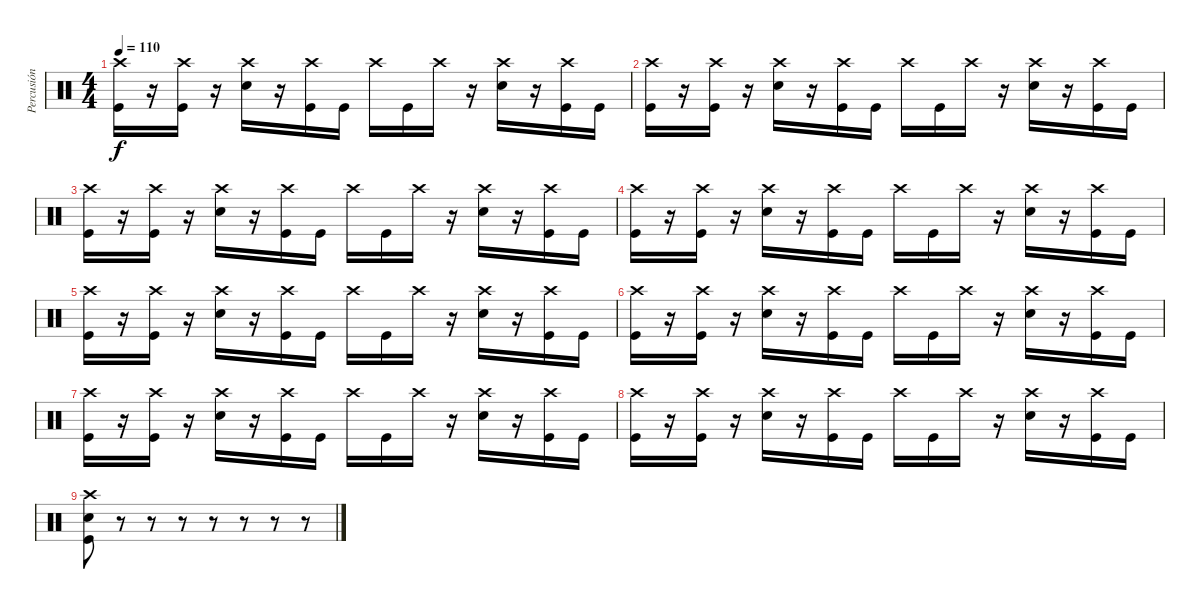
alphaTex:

\track ("Percusión" "Percusión") {instrument percussion}
\staff {score}
\articulation defaults
\ts (4 4)
\tempo 110
\clef neutral
\ks c
("Crash high (hit)" "Kick (hit)").16{dy f} r.16 ("Crash high (hit)" "Kick (hit)").16 r.16 ("Crash high (hit)" "Electric Snare (hit)").16 r.16 ("Crash high (hit)" "Kick (hit)").16 "Kick (hit)".16 "Crash high (hit)".16 "Kick (hit)".16 "Crash high (hit)".16 r.16 ("Crash high (hit)" "Electric Snare (hit)").16 r.16 ("Crash high (hit)" "Kick (hit)").16 "Kick (hit)".16 |
("Crash high (hit)" "Kick (hit)").16 r.16 ("Crash high (hit)" "Kick (hit)").16 r.16 ("Crash high (hit)" "Electric Snare (hit)").16 r.16 ("Crash high (hit)" "Kick (hit)").16 "Kick (hit)".16 "Crash high (hit)".16 "Kick (hit)".16 "Crash high (hit)".16 r.16 ("Crash high (hit)" "Electric Snare (hit)").16 r.16 ("Crash high (hit)" "Kick (hit)").16 "Kick (hit)".16 |
("Crash high (hit)" "Kick (hit)").16 r.16 ("Crash high (hit)" "Kick (hit)").16 r.16 ("Crash high (hit)" "Electric Snare (hit)").16 r.16 ("Crash high (hit)" "Kick (hit)").16 "Kick (hit)".16 "Crash high (hit)".16 "Kick (hit)".16 "Crash high (hit)".16 r.16 ("Crash high (hit)" "Electric Snare (hit)").16 r.16 ("Crash high (hit)" "Kick (hit)").16 "Kick (hit)".16 |
("Crash high (hit)" "Kick (hit)").16 r.16 ("Crash high (hit)" "Kick (hit)").16 r.16 ("Crash high (hit)" "Electric Snare (hit)").16 r.16 ("Crash high (hit)" "Kick (hit)").16 "Kick (hit)".16 "Crash high (hit)".16 "Kick (hit)".16 "Crash high (hit)".16 r.16 ("Crash high (hit)" "Electric Snare (hit)").16 r.16 ("Crash high (hit)" "Kick (hit)").16 "Kick (hit)".16 |
("Crash high (hit)" "Kick (hit)").16 r.16 ("Crash high (hit)" "Kick (hit)").16 r.16 ("Crash high (hit)" "Electric Snare (hit)").16 r.16 ("Crash high (hit)" "Kick (hit)").16 "Kick (hit)".16 "Crash high (hit)".16 "Kick (hit)".16 "Crash high (hit)".16 r.16 ("Crash high (hit)" "Electric Snare (hit)").16 r.16 ("Crash high (hit)" "Kick (hit)").16 "Kick (hit)".16 |
("Crash high (hit)" "Kick (hit)").16 r.16 ("Crash high (hit)" "Kick (hit)").16 r.16 ("Crash high (hit)" "Electric Snare (hit)").16 r.16 ("Crash high (hit)" "Kick (hit)").16 "Kick (hit)".16 "Crash high (hit)".16 "Kick (hit)".16 "Crash high (hit)".16 r.16 ("Crash high (hit)" "Electric Snare (hit)").16 r.16 ("Crash high (hit)" "Kick (hit)").16 "Kick (hit)".16 |
("Crash high (hit)" "Kick (hit)").16 r.16 ("Crash high (hit)" "Kick (hit)").16 r.16 ("Crash high (hit)" "Electric Snare (hit)").16 r.16 ("Crash high (hit)" "Kick (hit)").16 "Kick (hit)".16 "Crash high (hit)".16 "Kick (hit)".16 "Crash high (hit)".16 r.16 ("Crash high (hit)" "Electric Snare (hit)").16 r.16 ("Crash high (hit)" "Kick (hit)").16 "Kick (hit)".16 |
("Crash high (hit)" "Kick (hit)").16 r.16 ("Crash high (hit)" "Kick (hit)").16 r.16 ("Crash high (hit)" "Electric Snare (hit)").16 r.16 ("Crash high (hit)" "Kick (hit)").16 "Kick (hit)".16 "Crash high (hit)".16 "Kick (hit)".16 "Crash high (hit)".16 r.16 ("Crash high (hit)" "Electric Snare (hit)").16 r.16 ("Crash high (hit)" "Kick (hit)").16 "Kick (hit)".16 |
("Crash high (hit)" "Electric Snare (hit)" "Kick (hit)").8 r.8 r.8 r.8 r.8 r.8 r.8 r.8
